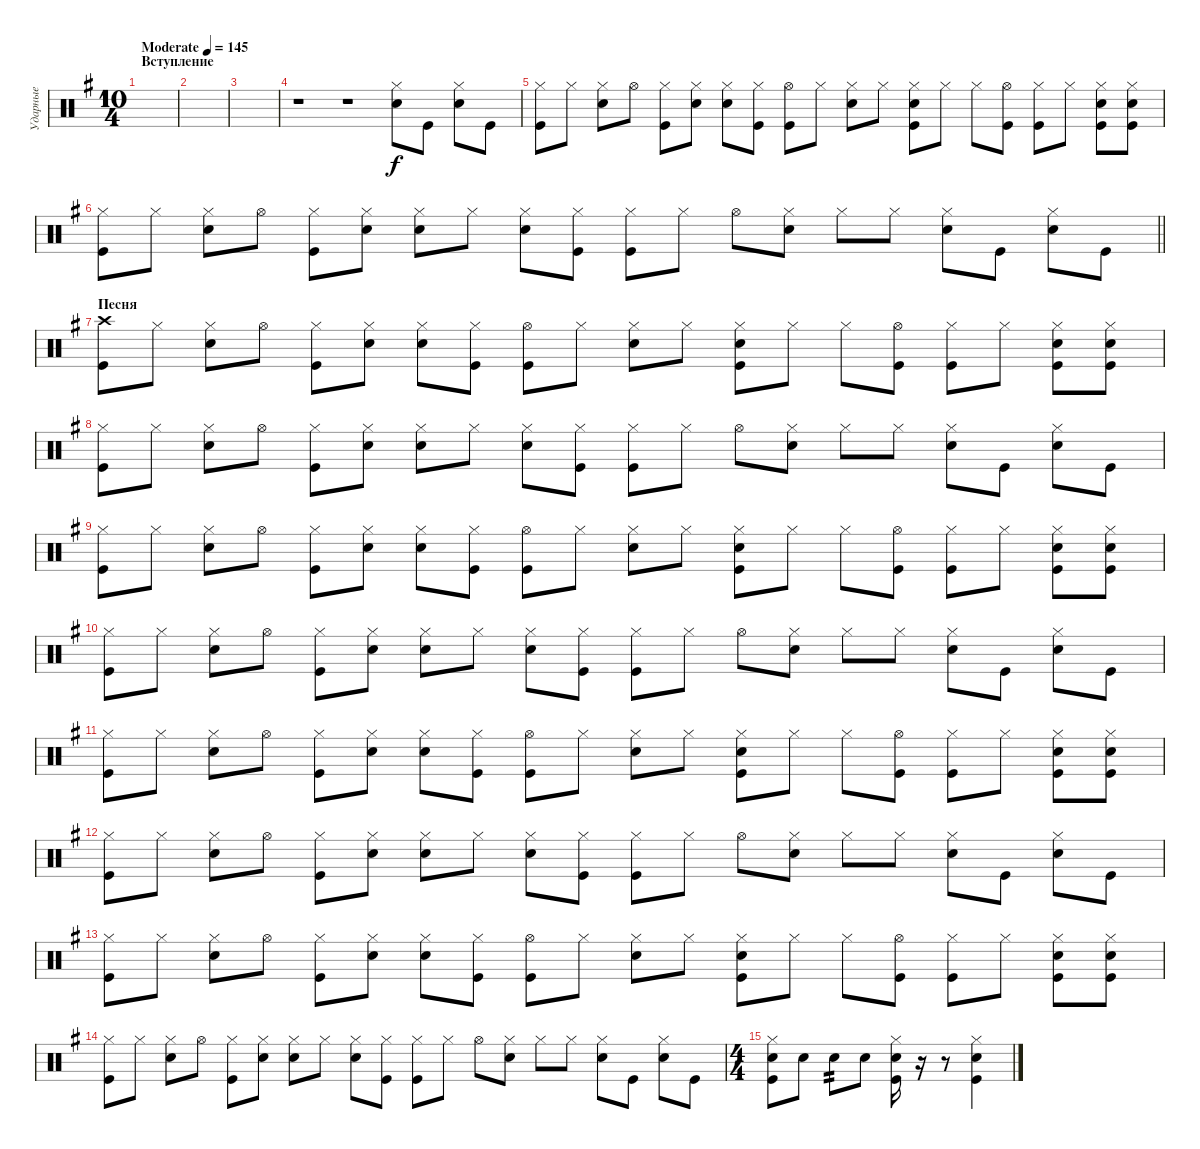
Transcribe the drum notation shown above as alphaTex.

\track ("Ударные" "Ударные") {instrument percussion}
\staff {score}
\articulation defaults
\ts (10 4)
\section ("" "Вступление")
\tempo (145 "Moderate")
\clef neutral
\ks eminor
|
|
|
r.1 r.1 ("Hi-Hat (closed)" "Electric Snare (hit)").8 "Kick (hit)".8 ("Hi-Hat (closed)" "Electric Snare (hit)").8 "Kick (hit)".8 |
("Hi-Hat (closed)" "Kick (hit)").8 "Hi-Hat (closed)".8 ("Hi-Hat (closed)" "Electric Snare (hit)").8 "Hi-Hat (open)".8 ("Hi-Hat (closed)" "Kick (hit)").8 ("Hi-Hat (closed)" "Electric Snare (hit)").8 ("Hi-Hat (closed)" "Electric Snare (hit)").8 ("Hi-Hat (closed)" "Kick (hit)").8 ("Hi-Hat (open)" "Kick (hit)").8 "Hi-Hat (closed)".8 ("Hi-Hat (closed)" "Electric Snare (hit)").8 "Hi-Hat (closed)".8 ("Hi-Hat (closed)" "Electric Snare (hit)" "Kick (hit)").8 "Hi-Hat (closed)".8 "Hi-Hat (closed)".8 ("Hi-Hat (open)" "Kick (hit)").8 ("Hi-Hat (closed)" "Kick (hit)").8 "Hi-Hat (closed)".8 ("Hi-Hat (closed)" "Electric Snare (hit)" "Kick (hit)").8 ("Hi-Hat (closed)" "Electric Snare (hit)" "Kick (hit)").8 |
\barLineRight lightlight
("Hi-Hat (closed)" "Kick (hit)").8 "Hi-Hat (closed)".8 ("Hi-Hat (closed)" "Electric Snare (hit)").8 "Hi-Hat (open)".8 ("Hi-Hat (closed)" "Kick (hit)").8 ("Hi-Hat (closed)" "Electric Snare (hit)").8 ("Hi-Hat (closed)" "Electric Snare (hit)").8 "Hi-Hat (closed)".8 ("Hi-Hat (closed)" "Electric Snare (hit)").8 ("Hi-Hat (closed)" "Kick (hit)").8 ("Hi-Hat (closed)" "Kick (hit)").8 "Hi-Hat (closed)".8 "Hi-Hat (open)".8 ("Hi-Hat (closed)" "Electric Snare (hit)").8 "Hi-Hat (closed)".8 "Hi-Hat (closed)".8 ("Hi-Hat (closed)" "Electric Snare (hit)").8 "Kick (hit)".8 ("Hi-Hat (closed)" "Electric Snare (hit)").8 "Kick (hit)".8 |
\section ("" "Песня")
("Crash high (hit)" "Kick (hit)").8 "Hi-Hat (closed)".8 ("Hi-Hat (closed)" "Electric Snare (hit)").8 "Hi-Hat (open)".8 ("Hi-Hat (closed)" "Kick (hit)").8 ("Hi-Hat (closed)" "Electric Snare (hit)").8 ("Hi-Hat (closed)" "Electric Snare (hit)").8 ("Hi-Hat (closed)" "Kick (hit)").8 ("Hi-Hat (open)" "Kick (hit)").8 "Hi-Hat (closed)".8 ("Hi-Hat (closed)" "Electric Snare (hit)").8 "Hi-Hat (closed)".8 ("Hi-Hat (closed)" "Electric Snare (hit)" "Kick (hit)").8 "Hi-Hat (closed)".8 "Hi-Hat (closed)".8 ("Hi-Hat (open)" "Kick (hit)").8 ("Hi-Hat (closed)" "Kick (hit)").8 "Hi-Hat (closed)".8 ("Hi-Hat (closed)" "Electric Snare (hit)" "Kick (hit)").8 ("Hi-Hat (closed)" "Electric Snare (hit)" "Kick (hit)").8 |
("Hi-Hat (closed)" "Kick (hit)").8 "Hi-Hat (closed)".8 ("Hi-Hat (closed)" "Electric Snare (hit)").8 "Hi-Hat (open)".8 ("Hi-Hat (closed)" "Kick (hit)").8 ("Hi-Hat (closed)" "Electric Snare (hit)").8 ("Hi-Hat (closed)" "Electric Snare (hit)").8 "Hi-Hat (closed)".8 ("Hi-Hat (closed)" "Electric Snare (hit)").8 ("Hi-Hat (closed)" "Kick (hit)").8 ("Hi-Hat (closed)" "Kick (hit)").8 "Hi-Hat (closed)".8 "Hi-Hat (open)".8 ("Hi-Hat (closed)" "Electric Snare (hit)").8 "Hi-Hat (closed)".8 "Hi-Hat (closed)".8 ("Hi-Hat (closed)" "Electric Snare (hit)").8 "Kick (hit)".8 ("Hi-Hat (closed)" "Electric Snare (hit)").8 "Kick (hit)".8 |
("Hi-Hat (closed)" "Kick (hit)").8 "Hi-Hat (closed)".8 ("Hi-Hat (closed)" "Electric Snare (hit)").8 "Hi-Hat (open)".8 ("Hi-Hat (closed)" "Kick (hit)").8 ("Hi-Hat (closed)" "Electric Snare (hit)").8 ("Hi-Hat (closed)" "Electric Snare (hit)").8 ("Hi-Hat (closed)" "Kick (hit)").8 ("Hi-Hat (open)" "Kick (hit)").8 "Hi-Hat (closed)".8 ("Hi-Hat (closed)" "Electric Snare (hit)").8 "Hi-Hat (closed)".8 ("Hi-Hat (closed)" "Electric Snare (hit)" "Kick (hit)").8 "Hi-Hat (closed)".8 "Hi-Hat (closed)".8 ("Hi-Hat (open)" "Kick (hit)").8 ("Hi-Hat (closed)" "Kick (hit)").8 "Hi-Hat (closed)".8 ("Hi-Hat (closed)" "Electric Snare (hit)" "Kick (hit)").8 ("Hi-Hat (closed)" "Electric Snare (hit)" "Kick (hit)").8 |
("Hi-Hat (closed)" "Kick (hit)").8 "Hi-Hat (closed)".8 ("Hi-Hat (closed)" "Electric Snare (hit)").8 "Hi-Hat (open)".8 ("Hi-Hat (closed)" "Kick (hit)").8 ("Hi-Hat (closed)" "Electric Snare (hit)").8 ("Hi-Hat (closed)" "Electric Snare (hit)").8 "Hi-Hat (closed)".8 ("Hi-Hat (closed)" "Electric Snare (hit)").8 ("Hi-Hat (closed)" "Kick (hit)").8 ("Hi-Hat (closed)" "Kick (hit)").8 "Hi-Hat (closed)".8 "Hi-Hat (open)".8 ("Hi-Hat (closed)" "Electric Snare (hit)").8 "Hi-Hat (closed)".8 "Hi-Hat (closed)".8 ("Hi-Hat (closed)" "Electric Snare (hit)").8 "Kick (hit)".8 ("Hi-Hat (closed)" "Electric Snare (hit)").8 "Kick (hit)".8 |
("Hi-Hat (closed)" "Kick (hit)").8 "Hi-Hat (closed)".8 ("Hi-Hat (closed)" "Electric Snare (hit)").8 "Hi-Hat (open)".8 ("Hi-Hat (closed)" "Kick (hit)").8 ("Hi-Hat (closed)" "Electric Snare (hit)").8 ("Hi-Hat (closed)" "Electric Snare (hit)").8 ("Hi-Hat (closed)" "Kick (hit)").8 ("Hi-Hat (open)" "Kick (hit)").8 "Hi-Hat (closed)".8 ("Hi-Hat (closed)" "Electric Snare (hit)").8 "Hi-Hat (closed)".8 ("Hi-Hat (closed)" "Electric Snare (hit)" "Kick (hit)").8 "Hi-Hat (closed)".8 "Hi-Hat (closed)".8 ("Hi-Hat (open)" "Kick (hit)").8 ("Hi-Hat (closed)" "Kick (hit)").8 "Hi-Hat (closed)".8 ("Hi-Hat (closed)" "Electric Snare (hit)" "Kick (hit)").8 ("Hi-Hat (closed)" "Electric Snare (hit)" "Kick (hit)").8 |
("Hi-Hat (closed)" "Kick (hit)").8 "Hi-Hat (closed)".8 ("Hi-Hat (closed)" "Electric Snare (hit)").8 "Hi-Hat (open)".8 ("Hi-Hat (closed)" "Kick (hit)").8 ("Hi-Hat (closed)" "Electric Snare (hit)").8 ("Hi-Hat (closed)" "Electric Snare (hit)").8 "Hi-Hat (closed)".8 ("Hi-Hat (closed)" "Electric Snare (hit)").8 ("Hi-Hat (closed)" "Kick (hit)").8 ("Hi-Hat (closed)" "Kick (hit)").8 "Hi-Hat (closed)".8 "Hi-Hat (open)".8 ("Hi-Hat (closed)" "Electric Snare (hit)").8 "Hi-Hat (closed)".8 "Hi-Hat (closed)".8 ("Hi-Hat (closed)" "Electric Snare (hit)").8 "Kick (hit)".8 ("Hi-Hat (closed)" "Electric Snare (hit)").8 "Kick (hit)".8 |
("Hi-Hat (closed)" "Kick (hit)").8 "Hi-Hat (closed)".8 ("Hi-Hat (closed)" "Electric Snare (hit)").8 "Hi-Hat (open)".8 ("Hi-Hat (closed)" "Kick (hit)").8 ("Hi-Hat (closed)" "Electric Snare (hit)").8 ("Hi-Hat (closed)" "Electric Snare (hit)").8 ("Hi-Hat (closed)" "Kick (hit)").8 ("Hi-Hat (open)" "Kick (hit)").8 "Hi-Hat (closed)".8 ("Hi-Hat (closed)" "Electric Snare (hit)").8 "Hi-Hat (closed)".8 ("Hi-Hat (closed)" "Electric Snare (hit)" "Kick (hit)").8 "Hi-Hat (closed)".8 "Hi-Hat (closed)".8 ("Hi-Hat (open)" "Kick (hit)").8 ("Hi-Hat (closed)" "Kick (hit)").8 "Hi-Hat (closed)".8 ("Hi-Hat (closed)" "Electric Snare (hit)" "Kick (hit)").8 ("Hi-Hat (closed)" "Electric Snare (hit)" "Kick (hit)").8 |
("Hi-Hat (closed)" "Kick (hit)").8 "Hi-Hat (closed)".8 ("Hi-Hat (closed)" "Electric Snare (hit)").8 "Hi-Hat (open)".8 ("Hi-Hat (closed)" "Kick (hit)").8 ("Hi-Hat (closed)" "Electric Snare (hit)").8 ("Hi-Hat (closed)" "Electric Snare (hit)").8 "Hi-Hat (closed)".8 ("Hi-Hat (closed)" "Electric Snare (hit)").8 ("Hi-Hat (closed)" "Kick (hit)").8 ("Hi-Hat (closed)" "Kick (hit)").8 "Hi-Hat (closed)".8 "Hi-Hat (open)".8 ("Hi-Hat (closed)" "Electric Snare (hit)").8 "Hi-Hat (closed)".8 "Hi-Hat (closed)".8 ("Hi-Hat (closed)" "Electric Snare (hit)").8 "Kick (hit)".8 ("Hi-Hat (closed)" "Electric Snare (hit)").8 "Kick (hit)".8 |
\ts (4 4)
("Hi-Hat (closed)" "Electric Snare (hit)" "Kick (hit)").8 "Electric Snare (hit)".8 "Electric Snare (hit)".8{tp 2} "Electric Snare (hit)".8 ("Hi-Hat (closed)" "Electric Snare (hit)" "Kick (hit)").16 r.16 r.8 ("Hi-Hat (closed)" "Electric Snare (hit)" "Kick (hit)").4
